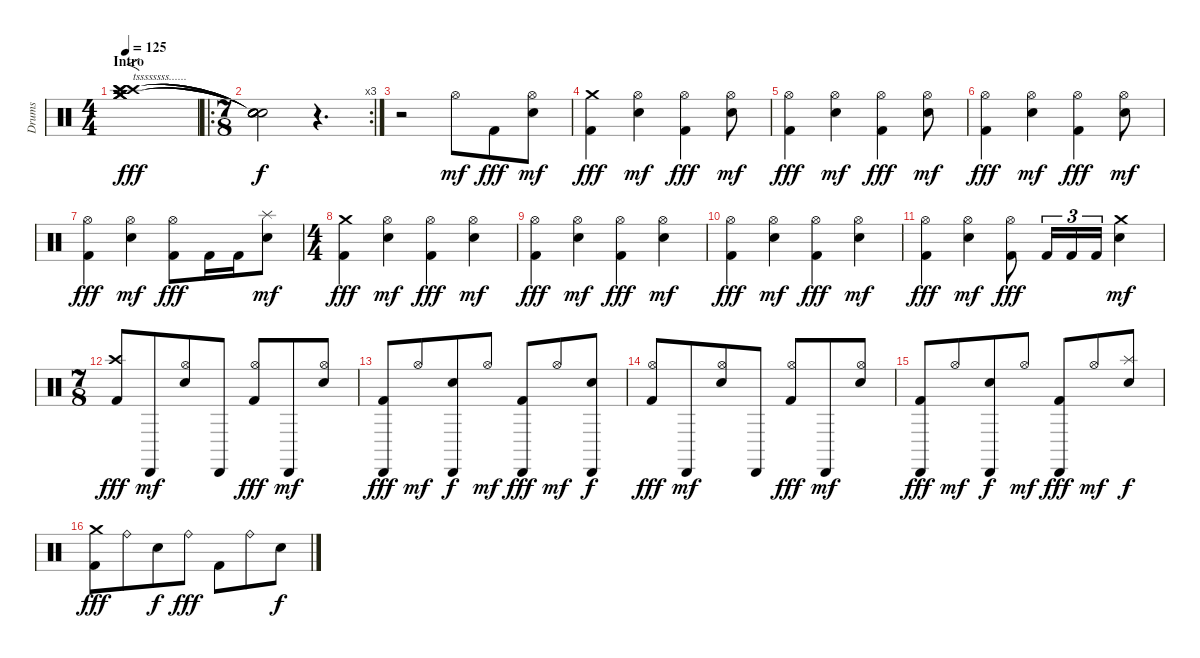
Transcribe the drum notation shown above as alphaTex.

\track ("Drums" "Drums") {instrument percussion}
\staff {score}
\articulation defaults
\ts (4 4)
\section ("" "Intro")
\tempo 125
\clef neutral
\ks c
("Crash medium (hit)" "Crash medium (hit)" "Crash medium (hit)" "Crash high (hit)" "Crash high (hit)" "Crash high (hit)").1{f txt "tssssssss......" dy fff} |
\ro
\rc 3
\ts (7 8)
("Snare (hit)"{t} "Snare (hit)"{t} "Snare (hit)"{t} "Snare (hit)"{t} "Snare (hit)"{t} "Snare (hit)"{t}).2{dy f} r.4{d} |
r.2 "Hi-Hat (open)".8{dy mf} "Kick (hit) 2".8{dy fff} ("Hi-Hat (open)" "Electric Snare (hit)").8{dy mf} |
("Crash medium (hit)" "Kick (hit) 2").4{dy fff} ("Hi-Hat (open)" "Electric Snare (hit)").4{dy mf} ("Hi-Hat (open)" "Kick (hit) 2").4{dy fff} ("Hi-Hat (open)" "Electric Snare (hit)").8{dy mf} |
("Hi-Hat (open)" "Kick (hit) 2").4{dy fff} ("Hi-Hat (open)" "Electric Snare (hit)").4{dy mf} ("Hi-Hat (open)" "Kick (hit) 2").4{dy fff} ("Hi-Hat (open)" "Electric Snare (hit)").8{dy mf} |
("Hi-Hat (open)" "Kick (hit) 2").4{dy fff} ("Hi-Hat (open)" "Electric Snare (hit)").4{dy mf} ("Hi-Hat (open)" "Kick (hit) 2").4{dy fff} ("Hi-Hat (open)" "Electric Snare (hit)").8{dy mf} |
("Hi-Hat (open)" "Kick (hit) 2").4{dy fff} ("Hi-Hat (open)" "Electric Snare (hit)").4{dy mf} ("Hi-Hat (open)" "Kick (hit) 2").8{dy fff} "Kick (hit) 2".16 "Kick (hit) 2".16 ("Splash (hit)" "Electric Snare (hit)").8{dy mf} |
\ts (4 4)
("Crash medium (hit)" "Kick (hit) 2").4{dy fff} ("Hi-Hat (open)" "Electric Snare (hit)").4{dy mf} ("Hi-Hat (open)" "Kick (hit) 2").4{dy fff} ("Hi-Hat (open)" "Electric Snare (hit)").4{dy mf} |
("Hi-Hat (open)" "Kick (hit) 2").4{dy fff} ("Hi-Hat (open)" "Electric Snare (hit)").4{dy mf} ("Hi-Hat (open)" "Kick (hit) 2").4{dy fff} ("Hi-Hat (open)" "Electric Snare (hit)").4{dy mf} |
("Hi-Hat (open)" "Kick (hit) 2").4{dy fff} ("Hi-Hat (open)" "Electric Snare (hit)").4{dy mf} ("Hi-Hat (open)" "Kick (hit) 2").4{dy fff} ("Hi-Hat (open)" "Electric Snare (hit)").4{dy mf} |
("Hi-Hat (open)" "Kick (hit) 2").4{dy fff} ("Hi-Hat (open)" "Electric Snare (hit)").4{dy mf} ("Hi-Hat (open)" "Kick (hit) 2").8{dy fff} "Kick (hit) 2".16{tu (3 2)} "Kick (hit) 2".16{tu (3 2)} "Kick (hit) 2".16{tu (3 2)} ("Crash medium (hit)" "Electric Snare (hit)").4{dy mf} |
\ts (7 8)
("Crash high (hit)" "Kick (hit) 2").8{dy fff} "Cabasa (hit)".8{dy mf} ("Hi-Hat (open)" "Electric Snare (hit)").8 "Cabasa (hit)".8 ("Hi-Hat (open)" "Kick (hit) 2").8{dy fff} "Cabasa (hit)".8{dy mf} ("Hi-Hat (open)" "Electric Snare (hit)").8 |
("Cabasa (hit)" "Kick (hit) 2").8{dy fff} "Hi-Hat (open)".8{dy mf} ("Cabasa (hit)" "Electric Snare (hit)").8{dy f} "Hi-Hat (open)".8{dy mf} ("Cabasa (hit)" "Kick (hit) 2").8{dy fff} "Hi-Hat (open)".8{dy mf} ("Cabasa (hit)" "Electric Snare (hit)").8{dy f} |
("Hi-Hat (open)" "Kick (hit) 2").8{dy fff} "Cabasa (hit)".8{dy mf} ("Hi-Hat (open)" "Electric Snare (hit)").8 "Cabasa (hit)".8 ("Hi-Hat (open)" "Kick (hit) 2").8{dy fff} "Cabasa (hit)".8{dy mf} ("Hi-Hat (open)" "Electric Snare (hit)").8 |
("Cabasa (hit)" "Kick (hit) 2").8{dy fff} "Hi-Hat (open)".8{dy mf} ("Cabasa (hit)" "Electric Snare (hit)").8{dy f} "Hi-Hat (open)".8{dy mf} ("Cabasa (hit)" "Kick (hit) 2").8{dy fff} "Hi-Hat (open)".8{dy mf} ("Splash (hit)" "Electric Snare (hit)").8{dy f} |
("Crash medium (hit)" "Kick (hit) 2").8{dy fff} "Ride (bell)".8 "Electric Snare (hit)".8{dy f} "Ride (bell)".8{dy fff} "Kick (hit) 2".8 "Ride (bell)".8 "Electric Snare (hit)".8{dy f}
